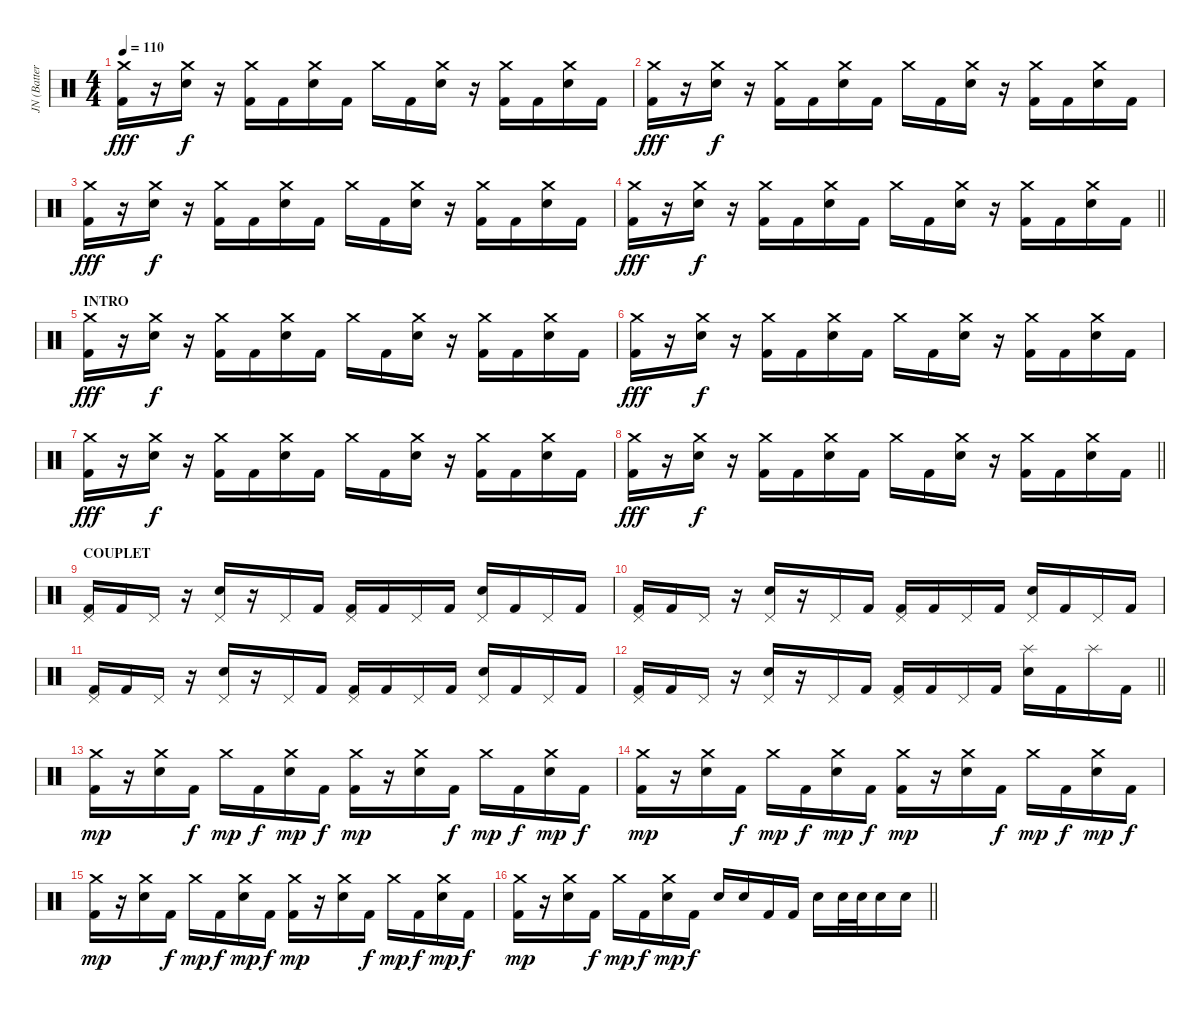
\track ("JN (Batterie)" "JN (Batter") {instrument percussion}
\staff {score}
\articulation defaults
\ts (4 4)
\tempo 110
\clef neutral
\ks c
("Crash medium (hit)" "Kick (hit) 2").16{dy fff} r.16 ("Crash medium (hit)" "Electric Snare (hit)").16{dy f} r.16 ("Crash medium (hit)" "Kick (hit) 2").16 "Kick (hit) 2".16 ("Crash medium (hit)" "Electric Snare (hit)").16 "Kick (hit) 2".16 "Crash medium (hit)".16 "Kick (hit) 2".16 ("Crash medium (hit)" "Electric Snare (hit)").16 r.16 ("Crash medium (hit)" "Kick (hit) 2").16 "Kick (hit) 2".16 ("Crash medium (hit)" "Electric Snare (hit)").16 "Kick (hit) 2".16 |
("Crash medium (hit)" "Kick (hit) 2").16{dy fff} r.16 ("Crash medium (hit)" "Electric Snare (hit)").16{dy f} r.16 ("Crash medium (hit)" "Kick (hit) 2").16 "Kick (hit) 2".16 ("Crash medium (hit)" "Electric Snare (hit)").16 "Kick (hit) 2".16 "Crash medium (hit)".16 "Kick (hit) 2".16 ("Crash medium (hit)" "Electric Snare (hit)").16 r.16 ("Crash medium (hit)" "Kick (hit) 2").16 "Kick (hit) 2".16 ("Crash medium (hit)" "Electric Snare (hit)").16 "Kick (hit) 2".16 |
("Crash medium (hit)" "Kick (hit) 2").16{dy fff} r.16 ("Crash medium (hit)" "Electric Snare (hit)").16{dy f} r.16 ("Crash medium (hit)" "Kick (hit) 2").16 "Kick (hit) 2".16 ("Crash medium (hit)" "Electric Snare (hit)").16 "Kick (hit) 2".16 "Crash medium (hit)".16 "Kick (hit) 2".16 ("Crash medium (hit)" "Electric Snare (hit)").16 r.16 ("Crash medium (hit)" "Kick (hit) 2").16 "Kick (hit) 2".16 ("Crash medium (hit)" "Electric Snare (hit)").16 "Kick (hit) 2".16 |
\barLineRight lightlight
("Crash medium (hit)" "Kick (hit) 2").16{dy fff} r.16 ("Crash medium (hit)" "Electric Snare (hit)").16{dy f} r.16 ("Crash medium (hit)" "Kick (hit) 2").16 "Kick (hit) 2".16 ("Crash medium (hit)" "Electric Snare (hit)").16 "Kick (hit) 2".16 "Crash medium (hit)".16 "Kick (hit) 2".16 ("Crash medium (hit)" "Electric Snare (hit)").16 r.16 ("Crash medium (hit)" "Kick (hit) 2").16 "Kick (hit) 2".16 ("Crash medium (hit)" "Electric Snare (hit)").16 "Kick (hit) 2".16 |
\section ("" "INTRO")
("Crash medium (hit)" "Kick (hit) 2").16{dy fff} r.16 ("Crash medium (hit)" "Electric Snare (hit)").16{dy f} r.16 ("Crash medium (hit)" "Kick (hit) 2").16 "Kick (hit) 2".16 ("Crash medium (hit)" "Electric Snare (hit)").16 "Kick (hit) 2".16 "Crash medium (hit)".16 "Kick (hit) 2".16 ("Crash medium (hit)" "Electric Snare (hit)").16 r.16 ("Crash medium (hit)" "Kick (hit) 2").16 "Kick (hit) 2".16 ("Crash medium (hit)" "Electric Snare (hit)").16 "Kick (hit) 2".16 |
("Crash medium (hit)" "Kick (hit) 2").16{dy fff} r.16 ("Crash medium (hit)" "Electric Snare (hit)").16{dy f} r.16 ("Crash medium (hit)" "Kick (hit) 2").16 "Kick (hit) 2".16 ("Crash medium (hit)" "Electric Snare (hit)").16 "Kick (hit) 2".16 "Crash medium (hit)".16 "Kick (hit) 2".16 ("Crash medium (hit)" "Electric Snare (hit)").16 r.16 ("Crash medium (hit)" "Kick (hit) 2").16 "Kick (hit) 2".16 ("Crash medium (hit)" "Electric Snare (hit)").16 "Kick (hit) 2".16 |
("Crash medium (hit)" "Kick (hit) 2").16{dy fff} r.16 ("Crash medium (hit)" "Electric Snare (hit)").16{dy f} r.16 ("Crash medium (hit)" "Kick (hit) 2").16 "Kick (hit) 2".16 ("Crash medium (hit)" "Electric Snare (hit)").16 "Kick (hit) 2".16 "Crash medium (hit)".16 "Kick (hit) 2".16 ("Crash medium (hit)" "Electric Snare (hit)").16 r.16 ("Crash medium (hit)" "Kick (hit) 2").16 "Kick (hit) 2".16 ("Crash medium (hit)" "Electric Snare (hit)").16 "Kick (hit) 2".16 |
\barLineRight lightlight
("Crash medium (hit)" "Kick (hit) 2").16{dy fff} r.16 ("Crash medium (hit)" "Electric Snare (hit)").16{dy f} r.16 ("Crash medium (hit)" "Kick (hit) 2").16 "Kick (hit) 2".16 ("Crash medium (hit)" "Electric Snare (hit)").16 "Kick (hit) 2".16 "Crash medium (hit)".16 "Kick (hit) 2".16 ("Crash medium (hit)" "Electric Snare (hit)").16 r.16 ("Crash medium (hit)" "Kick (hit) 2").16 "Kick (hit) 2".16 ("Crash medium (hit)" "Electric Snare (hit)").16 "Kick (hit) 2".16 |
\section ("" "COUPLET")
("Pedal Hi-Hat (hit)" "Kick (hit) 2").16 "Kick (hit) 2".16 "Pedal Hi-Hat (hit)".16 r.16 ("Pedal Hi-Hat (hit)" "Electric Snare (hit)").16 r.16 "Pedal Hi-Hat (hit)".16 "Kick (hit) 2".16 ("Pedal Hi-Hat (hit)" "Kick (hit) 2").16 "Kick (hit) 2".16 "Pedal Hi-Hat (hit)".16 "Kick (hit) 2".16 ("Pedal Hi-Hat (hit)" "Electric Snare (hit)").16 "Kick (hit) 2".16 "Pedal Hi-Hat (hit)".16 "Kick (hit) 2".16 |
("Pedal Hi-Hat (hit)" "Kick (hit) 2").16 "Kick (hit) 2".16 "Pedal Hi-Hat (hit)".16 r.16 ("Pedal Hi-Hat (hit)" "Electric Snare (hit)").16 r.16 "Pedal Hi-Hat (hit)".16 "Kick (hit) 2".16 ("Pedal Hi-Hat (hit)" "Kick (hit) 2").16 "Kick (hit) 2".16 "Pedal Hi-Hat (hit)".16 "Kick (hit) 2".16 ("Pedal Hi-Hat (hit)" "Electric Snare (hit)").16 "Kick (hit) 2".16 "Pedal Hi-Hat (hit)".16 "Kick (hit) 2".16 |
("Pedal Hi-Hat (hit)" "Kick (hit) 2").16 "Kick (hit) 2".16 "Pedal Hi-Hat (hit)".16 r.16 ("Pedal Hi-Hat (hit)" "Electric Snare (hit)").16 r.16 "Pedal Hi-Hat (hit)".16 "Kick (hit) 2".16 ("Pedal Hi-Hat (hit)" "Kick (hit) 2").16 "Kick (hit) 2".16 "Pedal Hi-Hat (hit)".16 "Kick (hit) 2".16 ("Pedal Hi-Hat (hit)" "Electric Snare (hit)").16 "Kick (hit) 2".16 "Pedal Hi-Hat (hit)".16 "Kick (hit) 2".16 |
\barLineRight lightlight
("Pedal Hi-Hat (hit)" "Kick (hit) 2").16 "Kick (hit) 2".16 "Pedal Hi-Hat (hit)".16 r.16 ("Pedal Hi-Hat (hit)" "Electric Snare (hit)").16 r.16 "Pedal Hi-Hat (hit)".16 "Kick (hit) 2".16 ("Pedal Hi-Hat (hit)" "Kick (hit) 2").16 "Kick (hit) 2".16 "Pedal Hi-Hat (hit)".16 "Kick (hit) 2".16 ("Splash (hit)" "Electric Snare (hit)").16 "Kick (hit) 2".16 "Splash (hit)".16 "Kick (hit) 2".16 |
\section ("" "")
("Crash medium (hit)" "Kick (hit) 2").16{dy mp} r.16 ("Crash medium (hit)" "Electric Snare (hit)").16 "Kick (hit) 2".16{dy f} "Crash medium (hit)".16{dy mp} "Kick (hit) 2".16{dy f} ("Crash medium (hit)" "Electric Snare (hit)").16{dy mp} "Kick (hit) 2".16{dy f} ("Crash medium (hit)" "Kick (hit) 2").16{dy mp} r.16 ("Crash medium (hit)" "Electric Snare (hit)").16 "Kick (hit) 2".16{dy f} "Crash medium (hit)".16{dy mp} "Kick (hit) 2".16{dy f} ("Crash medium (hit)" "Electric Snare (hit)").16{dy mp} "Kick (hit) 2".16{dy f} |
("Crash medium (hit)" "Kick (hit) 2").16{dy mp} r.16 ("Crash medium (hit)" "Electric Snare (hit)").16 "Kick (hit) 2".16{dy f} "Crash medium (hit)".16{dy mp} "Kick (hit) 2".16{dy f} ("Crash medium (hit)" "Electric Snare (hit)").16{dy mp} "Kick (hit) 2".16{dy f} ("Crash medium (hit)" "Kick (hit) 2").16{dy mp} r.16 ("Crash medium (hit)" "Electric Snare (hit)").16 "Kick (hit) 2".16{dy f} "Crash medium (hit)".16{dy mp} "Kick (hit) 2".16{dy f} ("Crash medium (hit)" "Electric Snare (hit)").16{dy mp} "Kick (hit) 2".16{dy f} |
("Crash medium (hit)" "Kick (hit) 2").16{dy mp} r.16 ("Crash medium (hit)" "Electric Snare (hit)").16 "Kick (hit) 2".16{dy f} "Crash medium (hit)".16{dy mp} "Kick (hit) 2".16{dy f} ("Crash medium (hit)" "Electric Snare (hit)").16{dy mp} "Kick (hit) 2".16{dy f} ("Crash medium (hit)" "Kick (hit) 2").16{dy mp} r.16 ("Crash medium (hit)" "Electric Snare (hit)").16 "Kick (hit) 2".16{dy f} "Crash medium (hit)".16{dy mp} "Kick (hit) 2".16{dy f} ("Crash medium (hit)" "Electric Snare (hit)").16{dy mp} "Kick (hit) 2".16{dy f} |
\barLineRight lightlight
("Crash medium (hit)" "Kick (hit) 2").16{dy mp} r.16 ("Crash medium (hit)" "Electric Snare (hit)").16 "Kick (hit) 2".16{dy f} "Crash medium (hit)".16{dy mp} "Kick (hit) 2".16{dy f} ("Crash medium (hit)" "Electric Snare (hit)").16{dy mp} "Kick (hit) 2".16{dy f} "Electric Snare (hit)".16 "Electric Snare (hit)".16 "Kick (hit) 2".16 "Kick (hit) 2".16 "Electric Snare (hit)".16 "Electric Snare (hit)".32 "Electric Snare (hit)".32 "Electric Snare (hit)".16 "Electric Snare (hit)".16
